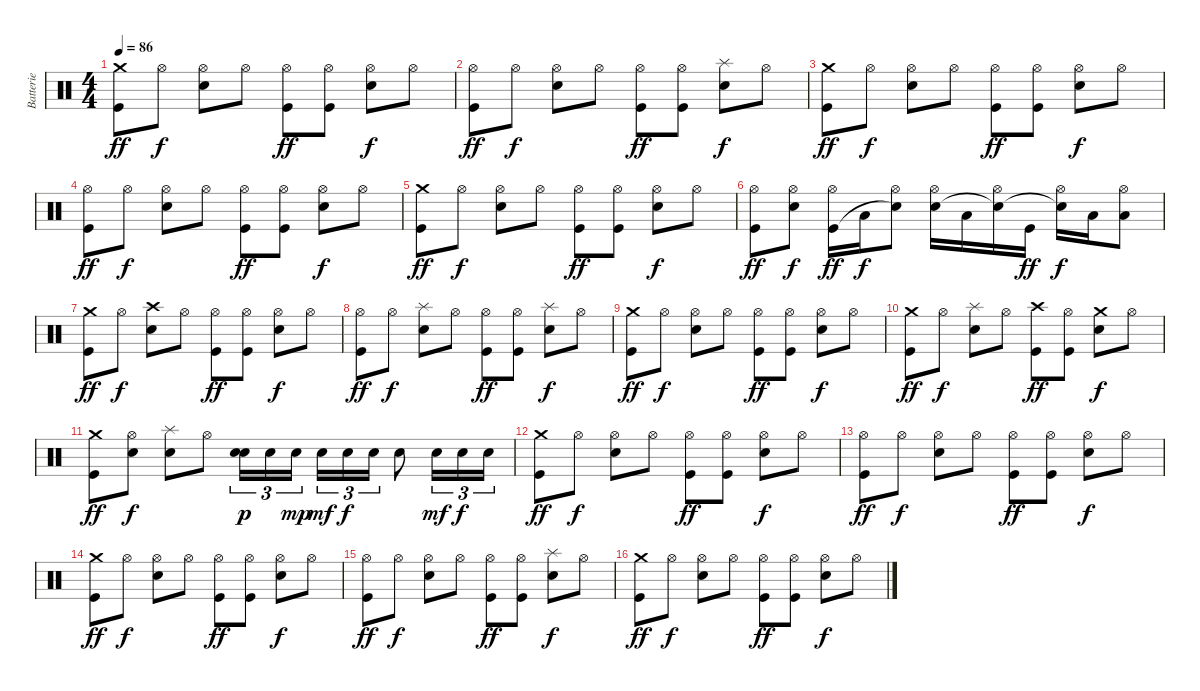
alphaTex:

\track ("Batterie" "Batterie") {instrument percussion}
\staff {score}
\articulation defaults
\ts (4 4)
\tempo 86
\clef neutral
\ks c
("Crash medium (hit)" "Kick (hit)").8{dy ff} "Hi-Hat (open)".8{dy f} ("Hi-Hat (open)" "Electric Snare (hit)").8 "Hi-Hat (open)".8 ("Hi-Hat (open)" "Kick (hit)").8{dy ff} ("Hi-Hat (open)" "Kick (hit)").8 ("Hi-Hat (open)" "Electric Snare (hit)").8{dy f} "Hi-Hat (open)".8 |
("Hi-Hat (open)" "Kick (hit)").8{dy ff} "Hi-Hat (open)".8{dy f} ("Hi-Hat (open)" "Electric Snare (hit)").8 "Hi-Hat (open)".8 ("Hi-Hat (open)" "Kick (hit)").8{dy ff} ("Hi-Hat (open)" "Kick (hit)").8 ("Splash (hit)" "Electric Snare (hit)").8{dy f} "Hi-Hat (open)".8 |
("Crash medium (hit)" "Kick (hit)").8{dy ff} "Hi-Hat (open)".8{dy f} ("Hi-Hat (open)" "Electric Snare (hit)").8 "Hi-Hat (open)".8 ("Hi-Hat (open)" "Kick (hit)").8{dy ff} ("Hi-Hat (open)" "Kick (hit)").8 ("Hi-Hat (open)" "Electric Snare (hit)").8{dy f} "Hi-Hat (open)".8 |
("Hi-Hat (open)" "Kick (hit)").8{dy ff} "Hi-Hat (open)".8{dy f} ("Hi-Hat (open)" "Electric Snare (hit)").8 "Hi-Hat (open)".8 ("Hi-Hat (open)" "Kick (hit)").8{dy ff} ("Hi-Hat (open)" "Kick (hit)").8 ("Hi-Hat (open)" "Electric Snare (hit)").8{dy f} "Hi-Hat (open)".8 |
("Crash medium (hit)" "Kick (hit)").8{dy ff} "Hi-Hat (open)".8{dy f} ("Hi-Hat (open)" "Electric Snare (hit)").8 "Hi-Hat (open)".8 ("Hi-Hat (open)" "Kick (hit)").8{dy ff} ("Hi-Hat (open)" "Kick (hit)").8 ("Hi-Hat (open)" "Electric Snare (hit)").8{dy f} "Hi-Hat (open)".8 |
("Hi-Hat (open)" "Kick (hit)").8{dy ff} ("Hi-Hat (open)" "Electric Snare (hit)").8{dy f} ("Hi-Hat (open)" "Kick (hit)").16{dy ff} "Low Tom (hit)".16{dy f} ("Hi-Hat (open)" "Snare (hit)"{t}).8 ("Hi-Hat (open)" "Electric Snare (hit)").16 "Low Tom (hit)".16 ("Hi-Hat (open)" "Snare (hit)"{t}).16 "Kick (hit)".16{dy ff} ("Hi-Hat (open)" "Snare (hit)"{t}).16{dy f} "Low Tom (hit)".16 ("Hi-Hat (open)" "Low Tom (hit)").8 |
("Crash medium (hit)" "Kick (hit)").8{dy ff} "Hi-Hat (open)".8{dy f} ("Crash high (hit)" "Electric Snare (hit)").8 "Hi-Hat (open)".8 ("Hi-Hat (open)" "Kick (hit)").8{dy ff} ("Hi-Hat (open)" "Kick (hit)").8 ("Hi-Hat (open)" "Electric Snare (hit)").8{dy f} "Hi-Hat (open)".8 |
("Hi-Hat (open)" "Kick (hit)").8{dy ff} "Hi-Hat (open)".8{dy f} ("Splash (hit)" "Electric Snare (hit)").8 "Hi-Hat (open)".8 ("Hi-Hat (open)" "Kick (hit)").8{dy ff} ("Hi-Hat (open)" "Kick (hit)").8 ("Splash (hit)" "Electric Snare (hit)").8{dy f} "Hi-Hat (open)".8 |
("Crash medium (hit)" "Kick (hit)").8{dy ff} "Hi-Hat (open)".8{dy f} ("Hi-Hat (open)" "Electric Snare (hit)").8 "Hi-Hat (open)".8 ("Hi-Hat (open)" "Kick (hit)").8{dy ff} ("Hi-Hat (open)" "Kick (hit)").8 ("Hi-Hat (open)" "Electric Snare (hit)").8{dy f} "Hi-Hat (open)".8 |
("Crash medium (hit)" "Kick (hit)").8{dy ff} "Hi-Hat (open)".8{dy f} ("Splash (hit)" "Electric Snare (hit)").8 "Hi-Hat (open)".8 ("Crash high (hit)" "Kick (hit)").8{dy ff} ("Hi-Hat (open)" "Kick (hit)").8 ("Crash medium (hit)" "Electric Snare (hit)").8{dy f} "Hi-Hat (open)".8 |
("Crash medium (hit)" "Kick (hit)").8{dy ff} ("Hi-Hat (open)" "Electric Snare (hit)").8{dy f} ("Splash (hit)" "Electric Snare (hit)").8 "Hi-Hat (open)".8 ("Electric Snare (hit)" "Electric Snare (hit)").16{tu (3 2) bu 60 dy p} "Electric Snare (hit)".16{tu (3 2)} "Electric Snare (hit)".16{tu (3 2) dy mp} "Electric Snare (hit)".16{tu (3 2) dy mf} "Electric Snare (hit)".16{tu (3 2) dy f} "Electric Snare (hit)".16{tu (3 2)} "Electric Snare (hit)".8 "Electric Snare (hit)".16{tu (3 2) dy mf} "Electric Snare (hit)".16{tu (3 2) dy f} "Electric Snare (hit)".16{tu (3 2)} |
("Crash medium (hit)" "Kick (hit)").8{dy ff} "Hi-Hat (open)".8{dy f} ("Hi-Hat (open)" "Electric Snare (hit)").8 "Hi-Hat (open)".8 ("Hi-Hat (open)" "Kick (hit)").8{dy ff} ("Hi-Hat (open)" "Kick (hit)").8 ("Hi-Hat (open)" "Electric Snare (hit)").8{dy f} "Hi-Hat (open)".8 |
("Hi-Hat (open)" "Kick (hit)").8{dy ff} "Hi-Hat (open)".8{dy f} ("Hi-Hat (open)" "Electric Snare (hit)").8 "Hi-Hat (open)".8 ("Hi-Hat (open)" "Kick (hit)").8{dy ff} ("Hi-Hat (open)" "Kick (hit)").8 ("Hi-Hat (open)" "Electric Snare (hit)").8{dy f} "Hi-Hat (open)".8 |
("Crash medium (hit)" "Kick (hit)").8{dy ff} "Hi-Hat (open)".8{dy f} ("Hi-Hat (open)" "Electric Snare (hit)").8 "Hi-Hat (open)".8 ("Hi-Hat (open)" "Kick (hit)").8{dy ff} ("Hi-Hat (open)" "Kick (hit)").8 ("Hi-Hat (open)" "Electric Snare (hit)").8{dy f} "Hi-Hat (open)".8 |
("Hi-Hat (open)" "Kick (hit)").8{dy ff} "Hi-Hat (open)".8{dy f} ("Hi-Hat (open)" "Electric Snare (hit)").8 "Hi-Hat (open)".8 ("Hi-Hat (open)" "Kick (hit)").8{dy ff} ("Hi-Hat (open)" "Kick (hit)").8 ("Splash (hit)" "Electric Snare (hit)").8{dy f} "Hi-Hat (open)".8 |
("Crash medium (hit)" "Kick (hit)").8{dy ff} "Hi-Hat (open)".8{dy f} ("Hi-Hat (open)" "Electric Snare (hit)").8 "Hi-Hat (open)".8 ("Hi-Hat (open)" "Kick (hit)").8{dy ff} ("Hi-Hat (open)" "Kick (hit)").8 ("Hi-Hat (open)" "Electric Snare (hit)").8{dy f} "Hi-Hat (open)".8
